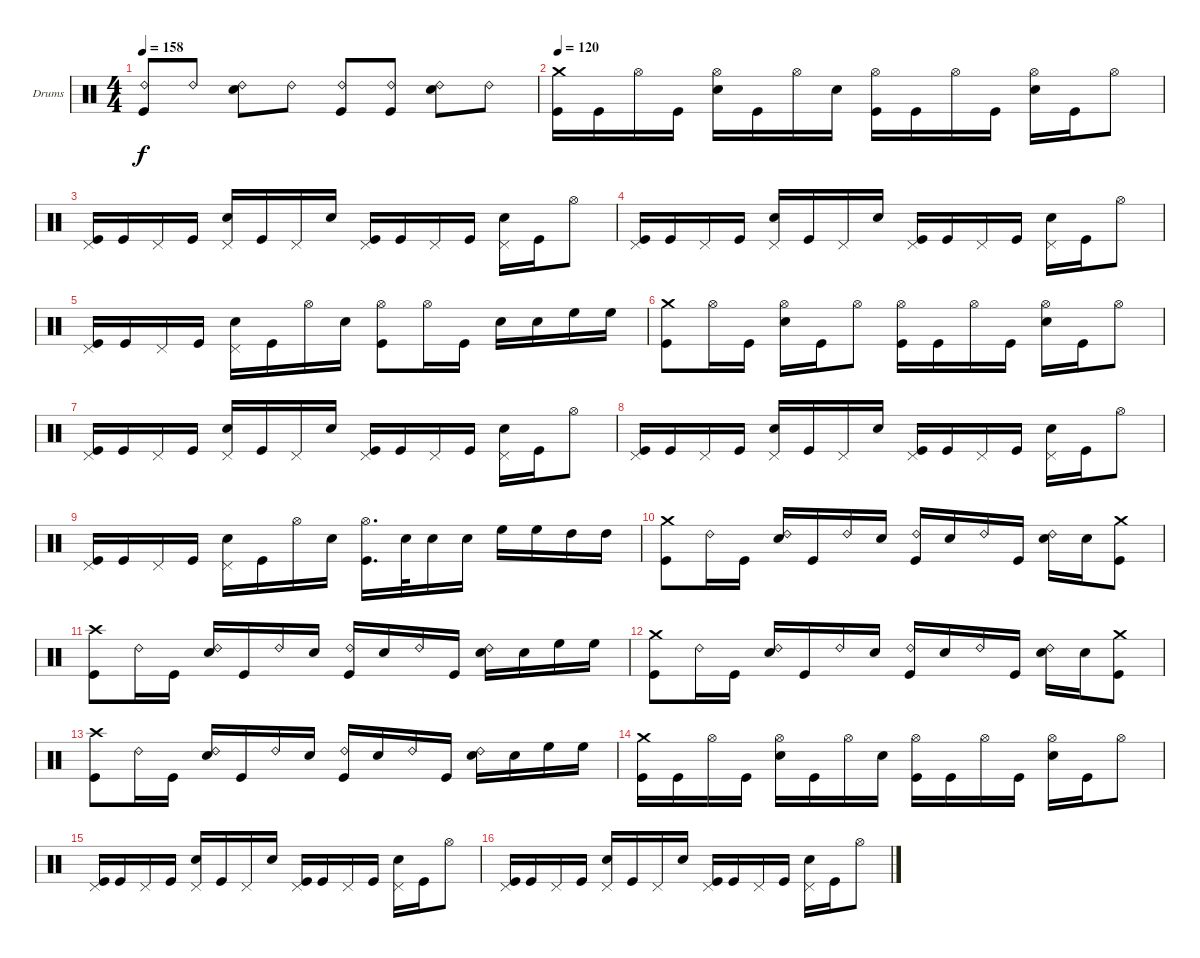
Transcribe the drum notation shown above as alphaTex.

\bracketExtendMode groupsimilarinstruments
\firstSystemTrackNameOrientation horizontal
\otherSystemsTrackNameOrientation horizontal
\track ("Drumkit" "Drums") {instrument percussion}
\staff {score}
\articulation defaults
\ts (4 4)
\tempo 158
\clef neutral
\ks c
("Ride (bell) 2" "Kick (hit)").8{dy f} "Ride (bell) 2".8 ("Ride (bell) 2" "Snare (hit) 2").8 "Ride (bell) 2".8 ("Ride (bell) 2" "Kick (hit)").8 ("Ride (bell) 2" "Kick (hit)").8 ("Ride (bell) 2" "Snare (hit) 2").8 "Ride (bell) 2".8 |
\tempo 120
("Crash medium (hit)" "Kick (hit)").16 "Kick (hit)".16 "Hi-Hat (open)".16 "Kick (hit)".16 ("Hi-Hat (open)" "Snare (hit) 2").16 "Kick (hit)".16 "Hi-Hat (open)".16 "Snare (hit) 2".16 ("Hi-Hat (open)" "Kick (hit)").16 "Kick (hit)".16 "Hi-Hat (open)".16 "Kick (hit)".16 ("Hi-Hat (open)" "Snare (hit) 2").16 "Kick (hit)".16 "Hi-Hat (open)".8 |
("Pedal Hi-Hat (hit)" "Kick (hit)").16 "Kick (hit)".16 "Pedal Hi-Hat (hit)".16 "Kick (hit)".16 ("Pedal Hi-Hat (hit)" "Snare (hit) 2").16 "Kick (hit)".16 "Pedal Hi-Hat (hit)".16 "Snare (hit) 2".16 ("Pedal Hi-Hat (hit)" "Kick (hit)").16 "Kick (hit)".16 "Pedal Hi-Hat (hit)".16 "Kick (hit)".16 ("Pedal Hi-Hat (hit)" "Snare (hit) 2").16 "Kick (hit)".16 "Hi-Hat (open)".8 |
("Pedal Hi-Hat (hit)" "Kick (hit)").16 "Kick (hit)".16 "Pedal Hi-Hat (hit)".16 "Kick (hit)".16 ("Pedal Hi-Hat (hit)" "Snare (hit) 2").16 "Kick (hit)".16 "Pedal Hi-Hat (hit)".16 "Snare (hit) 2".16 ("Pedal Hi-Hat (hit)" "Kick (hit)").16 "Kick (hit)".16 "Pedal Hi-Hat (hit)".16 "Kick (hit)".16 ("Pedal Hi-Hat (hit)" "Snare (hit) 2").16 "Kick (hit)".16 "Hi-Hat (open)".8 |
("Pedal Hi-Hat (hit)" "Kick (hit)").16 "Kick (hit)".16 "Pedal Hi-Hat (hit)".16 "Kick (hit)".16 ("Pedal Hi-Hat (hit)" "Snare (hit) 2").16 "Kick (hit)".16 "Hi-Hat (open)".16 "Snare (hit) 2".16 ("Hi-Hat (open)" "Kick (hit)").8 "Hi-Hat (open)".16 "Kick (hit)".16 "Snare (hit) 2".16 "Snare (hit) 2".16 "High Floor Tom (hit)".16 "High Floor Tom (hit)".16 |
("Crash medium (hit)" "Kick (hit)").8 "Hi-Hat (open)".16 "Kick (hit)".16 ("Hi-Hat (open)" "Snare (hit) 2").16 "Kick (hit)".16 "Hi-Hat (open)".8 ("Hi-Hat (open)" "Kick (hit)").16 "Kick (hit)".16 "Hi-Hat (open)".16 "Kick (hit)".16 ("Hi-Hat (open)" "Snare (hit) 2").16 "Kick (hit)".16 "Hi-Hat (open)".8 |
("Pedal Hi-Hat (hit)" "Kick (hit)").16 "Kick (hit)".16 "Pedal Hi-Hat (hit)".16 "Kick (hit)".16 ("Pedal Hi-Hat (hit)" "Snare (hit) 2").16 "Kick (hit)".16 "Pedal Hi-Hat (hit)".16 "Snare (hit) 2".16 ("Pedal Hi-Hat (hit)" "Kick (hit)").16 "Kick (hit)".16 "Pedal Hi-Hat (hit)".16 "Kick (hit)".16 ("Pedal Hi-Hat (hit)" "Snare (hit) 2").16 "Kick (hit)".16 "Hi-Hat (open)".8 |
("Pedal Hi-Hat (hit)" "Kick (hit)").16 "Kick (hit)".16 "Pedal Hi-Hat (hit)".16 "Kick (hit)".16 ("Pedal Hi-Hat (hit)" "Snare (hit) 2").16 "Kick (hit)".16 "Pedal Hi-Hat (hit)".16 "Snare (hit) 2".16 ("Pedal Hi-Hat (hit)" "Kick (hit)").16 "Kick (hit)".16 "Pedal Hi-Hat (hit)".16 "Kick (hit)".16 ("Pedal Hi-Hat (hit)" "Snare (hit) 2").16 "Kick (hit)".16 "Hi-Hat (open)".8 |
("Pedal Hi-Hat (hit)" "Kick (hit)").16 "Kick (hit)".16 "Pedal Hi-Hat (hit)".16 "Kick (hit)".16 ("Pedal Hi-Hat (hit)" "Snare (hit) 2").16 "Kick (hit)".16 "Hi-Hat (open)".16 "Snare (hit) 2".16 ("Hi-Hat (open)" "Kick (hit)").16{d} "Snare (hit) 2".32 "Snare (hit) 2".16 "Snare (hit) 2".16 "High Floor Tom (hit)".16 "High Floor Tom (hit)".16 "High Tom (hit)".16 "High Tom (hit)".16 |
("Crash medium (hit)" "Kick (hit)").8 "Ride (bell) 2".16 "Kick (hit)".16 ("Ride (bell) 2" "Snare (hit) 2").16 "Kick (hit)".16 "Ride (bell) 2".16 "Snare (hit) 2".16 ("Ride (bell) 2" "Kick (hit)").16 "Snare (hit) 2".16 "Ride (bell) 2".16 "Kick (hit)".16 ("Ride (bell) 2" "Snare (hit) 2").16 "Snare (hit) 2".16 ("Crash medium (hit)" "Kick (hit)").8 |
("Crash high (hit)" "Kick (hit)").8 "Ride (bell) 2".16 "Kick (hit)".16 ("Ride (bell) 2" "Snare (hit) 2").16 "Kick (hit)".16 "Ride (bell) 2".16 "Snare (hit) 2".16 ("Ride (bell) 2" "Kick (hit)").16 "Snare (hit) 2".16 "Ride (bell) 2".16 "Kick (hit)".16 ("Ride (bell) 2" "Snare (hit) 2").16 "Snare (hit) 2".16 "High Floor Tom (hit)".16 "High Floor Tom (hit)".16 |
("Crash medium (hit)" "Kick (hit)").8 "Ride (bell) 2".16 "Kick (hit)".16 ("Ride (bell) 2" "Snare (hit) 2").16 "Kick (hit)".16 "Ride (bell) 2".16 "Snare (hit) 2".16 ("Ride (bell) 2" "Kick (hit)").16 "Snare (hit) 2".16 "Ride (bell) 2".16 "Kick (hit)".16 ("Ride (bell) 2" "Snare (hit) 2").16 "Snare (hit) 2".16 ("Crash medium (hit)" "Kick (hit)").8 |
("Crash high (hit)" "Kick (hit)").8 "Ride (bell) 2".16 "Kick (hit)".16 ("Ride (bell) 2" "Snare (hit) 2").16 "Kick (hit)".16 "Ride (bell) 2".16 "Snare (hit) 2".16 ("Ride (bell) 2" "Kick (hit)").16 "Snare (hit) 2".16 "Ride (bell) 2".16 "Kick (hit)".16 ("Ride (bell) 2" "Snare (hit) 2").16 "Snare (hit) 2".16 "High Floor Tom (hit)".16 "High Floor Tom (hit)".16 |
("Crash medium (hit)" "Kick (hit)").16 "Kick (hit)".16 "Hi-Hat (open)".16 "Kick (hit)".16 ("Hi-Hat (open)" "Snare (hit) 2").16 "Kick (hit)".16 "Hi-Hat (open)".16 "Snare (hit) 2".16 ("Hi-Hat (open)" "Kick (hit)").16 "Kick (hit)".16 "Hi-Hat (open)".16 "Kick (hit)".16 ("Hi-Hat (open)" "Snare (hit) 2").16 "Kick (hit)".16 "Hi-Hat (open)".8 |
("Pedal Hi-Hat (hit)" "Kick (hit)").16 "Kick (hit)".16 "Pedal Hi-Hat (hit)".16 "Kick (hit)".16 ("Pedal Hi-Hat (hit)" "Snare (hit) 2").16 "Kick (hit)".16 "Pedal Hi-Hat (hit)".16 "Snare (hit) 2".16 ("Pedal Hi-Hat (hit)" "Kick (hit)").16 "Kick (hit)".16 "Pedal Hi-Hat (hit)".16 "Kick (hit)".16 ("Pedal Hi-Hat (hit)" "Snare (hit) 2").16 "Kick (hit)".16 "Hi-Hat (open)".8 |
("Pedal Hi-Hat (hit)" "Kick (hit)").16 "Kick (hit)".16 "Pedal Hi-Hat (hit)".16 "Kick (hit)".16 ("Pedal Hi-Hat (hit)" "Snare (hit) 2").16 "Kick (hit)".16 "Pedal Hi-Hat (hit)".16 "Snare (hit) 2".16 ("Pedal Hi-Hat (hit)" "Kick (hit)").16 "Kick (hit)".16 "Pedal Hi-Hat (hit)".16 "Kick (hit)".16 ("Pedal Hi-Hat (hit)" "Snare (hit) 2").16 "Kick (hit)".16 "Hi-Hat (open)".8
